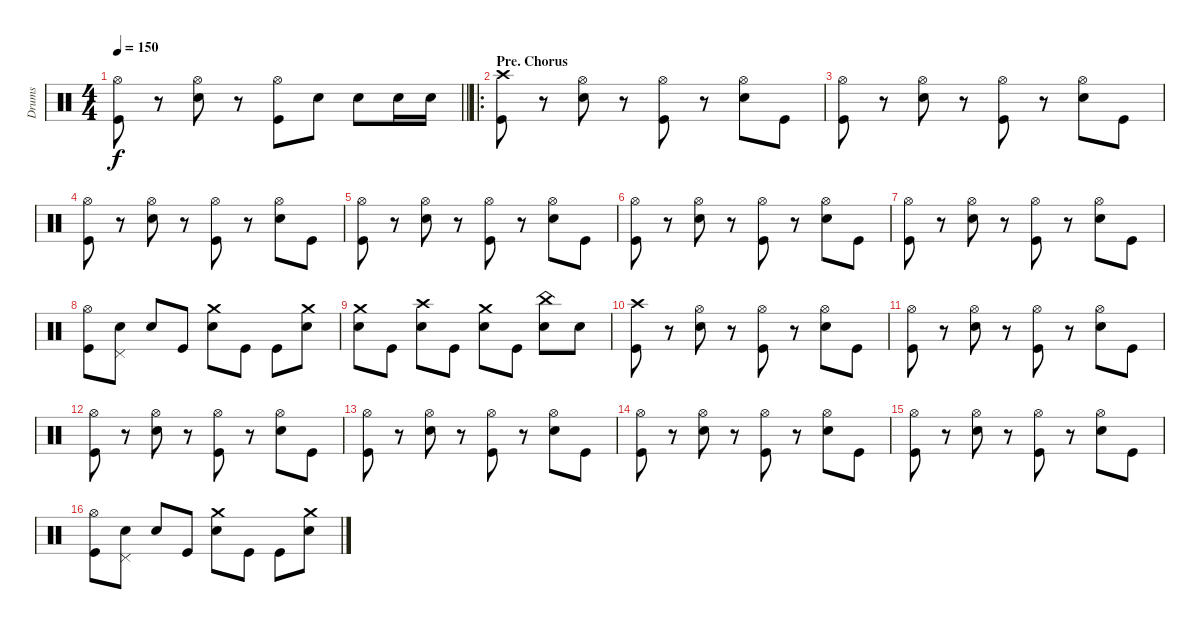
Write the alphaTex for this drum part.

\track ("Drums" "Drums") {instrument percussion}
\staff {score}
\articulation defaults
\ts (4 4)
\tempo 150
\clef neutral
\barLineRight lightlight
\ks c
("Hi-Hat (open)" "Kick (hit)").8{dy f} r.8 ("Hi-Hat (open)" "Electric Snare (hit)").8 r.8 ("Hi-Hat (open)" "Kick (hit)").8 "Electric Snare (hit)".8 "Electric Snare (hit)".8 "Electric Snare (hit)".16 "Electric Snare (hit)".16 |
\ro
\section ("" "Pre. Chorus")
("Crash high (hit)" "Kick (hit)").8 r.8 ("Hi-Hat (open)" "Electric Snare (hit)").8 r.8 ("Hi-Hat (open)" "Kick (hit)").8 r.8 ("Hi-Hat (open)" "Electric Snare (hit)").8 "Kick (hit)".8 |
("Hi-Hat (open)" "Kick (hit)").8 r.8 ("Hi-Hat (open)" "Electric Snare (hit)").8 r.8 ("Hi-Hat (open)" "Kick (hit)").8 r.8 ("Hi-Hat (open)" "Electric Snare (hit)").8 "Kick (hit)".8 |
("Hi-Hat (open)" "Kick (hit)").8 r.8 ("Hi-Hat (open)" "Electric Snare (hit)").8 r.8 ("Hi-Hat (open)" "Kick (hit)").8 r.8 ("Hi-Hat (open)" "Electric Snare (hit)").8 "Kick (hit)".8 |
("Hi-Hat (open)" "Kick (hit)").8 r.8 ("Hi-Hat (open)" "Electric Snare (hit)").8 r.8 ("Hi-Hat (open)" "Kick (hit)").8 r.8 ("Hi-Hat (open)" "Electric Snare (hit)").8 "Kick (hit)".8 |
("Hi-Hat (open)" "Kick (hit)").8 r.8 ("Hi-Hat (open)" "Electric Snare (hit)").8 r.8 ("Hi-Hat (open)" "Kick (hit)").8 r.8 ("Hi-Hat (open)" "Electric Snare (hit)").8 "Kick (hit)".8 |
("Hi-Hat (open)" "Kick (hit)").8 r.8 ("Hi-Hat (open)" "Electric Snare (hit)").8 r.8 ("Hi-Hat (open)" "Kick (hit)").8 r.8 ("Hi-Hat (open)" "Electric Snare (hit)").8 "Kick (hit)".8 |
("Hi-Hat (open)" "Kick (hit)").8 ("Pedal Hi-Hat (hit)" "Electric Snare (hit)").8 "Electric Snare (hit)".8 "Kick (hit)".8 ("Crash medium (hit)" "Electric Snare (hit)").8 "Kick (hit)".8 "Kick (hit)".8 ("Crash medium (hit)" "Electric Snare (hit)").8 |
("Crash medium (hit)" "Electric Snare (hit)").8 "Kick (hit)".8 ("Crash high (hit)" "Electric Snare (hit)").8 "Kick (hit)".8 ("Crash medium (hit)" "Electric Snare (hit)").8 "Kick (hit)".8 ("China (hit)" "Electric Snare (hit)").8 "Electric Snare (hit)".8 |
("Crash high (hit)" "Kick (hit)").8 r.8 ("Hi-Hat (open)" "Electric Snare (hit)").8 r.8 ("Hi-Hat (open)" "Kick (hit)").8 r.8 ("Hi-Hat (open)" "Electric Snare (hit)").8 "Kick (hit)".8 |
("Hi-Hat (open)" "Kick (hit)").8 r.8 ("Hi-Hat (open)" "Electric Snare (hit)").8 r.8 ("Hi-Hat (open)" "Kick (hit)").8 r.8 ("Hi-Hat (open)" "Electric Snare (hit)").8 "Kick (hit)".8 |
("Hi-Hat (open)" "Kick (hit)").8 r.8 ("Hi-Hat (open)" "Electric Snare (hit)").8 r.8 ("Hi-Hat (open)" "Kick (hit)").8 r.8 ("Hi-Hat (open)" "Electric Snare (hit)").8 "Kick (hit)".8 |
("Hi-Hat (open)" "Kick (hit)").8 r.8 ("Hi-Hat (open)" "Electric Snare (hit)").8 r.8 ("Hi-Hat (open)" "Kick (hit)").8 r.8 ("Hi-Hat (open)" "Electric Snare (hit)").8 "Kick (hit)".8 |
("Hi-Hat (open)" "Kick (hit)").8 r.8 ("Hi-Hat (open)" "Electric Snare (hit)").8 r.8 ("Hi-Hat (open)" "Kick (hit)").8 r.8 ("Hi-Hat (open)" "Electric Snare (hit)").8 "Kick (hit)".8 |
("Hi-Hat (open)" "Kick (hit)").8 r.8 ("Hi-Hat (open)" "Electric Snare (hit)").8 r.8 ("Hi-Hat (open)" "Kick (hit)").8 r.8 ("Hi-Hat (open)" "Electric Snare (hit)").8 "Kick (hit)".8 |
("Hi-Hat (open)" "Kick (hit)").8 ("Pedal Hi-Hat (hit)" "Electric Snare (hit)").8 "Electric Snare (hit)".8 "Kick (hit)".8 ("Crash medium (hit)" "Electric Snare (hit)").8 "Kick (hit)".8 "Kick (hit)".8 ("Crash medium (hit)" "Electric Snare (hit)").8
